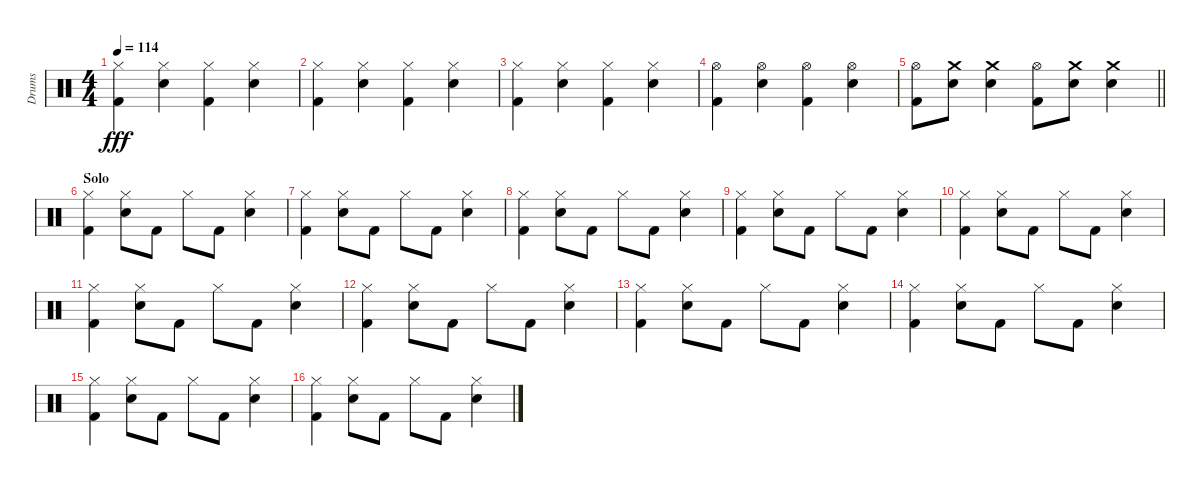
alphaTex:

\track ("Drums" "Drums") {instrument percussion}
\staff {score}
\articulation defaults
\ts (4 4)
\tempo 114
\clef neutral
\ks c
("Hi-Hat (closed)" "Kick (hit) 2").4{dy fff} ("Hi-Hat (closed)" "Snare (hit) 2").4 ("Hi-Hat (closed)" "Kick (hit) 2").4 ("Hi-Hat (closed)" "Snare (hit) 2").4 |
("Hi-Hat (closed)" "Kick (hit) 2").4 ("Hi-Hat (closed)" "Snare (hit) 2").4 ("Hi-Hat (closed)" "Kick (hit) 2").4 ("Hi-Hat (closed)" "Snare (hit) 2").4 |
("Hi-Hat (closed)" "Kick (hit) 2").4 ("Hi-Hat (closed)" "Snare (hit) 2").4 ("Hi-Hat (closed)" "Kick (hit) 2").4 ("Hi-Hat (closed)" "Snare (hit) 2").4 |
("Hi-Hat (open)" "Kick (hit) 2").4 ("Hi-Hat (open)" "Snare (hit) 2").4 ("Hi-Hat (open)" "Kick (hit) 2").4 ("Hi-Hat (open)" "Snare (hit) 2").4 |
\barLineRight lightlight
("Hi-Hat (open)" "Kick (hit) 2").8 ("Crash medium (hit)" "Snare (hit) 2").8 ("Crash medium (hit)" "Snare (hit) 2").4 ("Hi-Hat (open)" "Kick (hit) 2").8 ("Crash medium (hit)" "Snare (hit) 2").8 ("Crash medium (hit)" "Snare (hit) 2").4 |
\section ("" "Solo")
("Hi-Hat (closed)" "Kick (hit) 2").4 ("Hi-Hat (closed)" "Snare (hit) 2").8 "Kick (hit) 2".8 "Hi-Hat (closed)".8 "Kick (hit) 2".8 ("Hi-Hat (closed)" "Snare (hit) 2").4 |
("Hi-Hat (closed)" "Kick (hit) 2").4 ("Hi-Hat (closed)" "Snare (hit) 2").8 "Kick (hit) 2".8 "Hi-Hat (closed)".8 "Kick (hit) 2".8 ("Hi-Hat (closed)" "Snare (hit) 2").4 |
("Hi-Hat (closed)" "Kick (hit) 2").4 ("Hi-Hat (closed)" "Snare (hit) 2").8 "Kick (hit) 2".8 "Hi-Hat (closed)".8 "Kick (hit) 2".8 ("Hi-Hat (closed)" "Snare (hit) 2").4 |
("Hi-Hat (closed)" "Kick (hit) 2").4 ("Hi-Hat (closed)" "Snare (hit) 2").8 "Kick (hit) 2".8 "Hi-Hat (closed)".8 "Kick (hit) 2".8 ("Hi-Hat (closed)" "Snare (hit) 2").4 |
("Hi-Hat (closed)" "Kick (hit) 2").4 ("Hi-Hat (closed)" "Snare (hit) 2").8 "Kick (hit) 2".8 "Hi-Hat (closed)".8 "Kick (hit) 2".8 ("Hi-Hat (closed)" "Snare (hit) 2").4 |
("Hi-Hat (closed)" "Kick (hit) 2").4 ("Hi-Hat (closed)" "Snare (hit) 2").8 "Kick (hit) 2".8 "Hi-Hat (closed)".8 "Kick (hit) 2".8 ("Hi-Hat (closed)" "Snare (hit) 2").4 |
("Hi-Hat (closed)" "Kick (hit) 2").4 ("Hi-Hat (closed)" "Snare (hit) 2").8 "Kick (hit) 2".8 "Hi-Hat (closed)".8 "Kick (hit) 2".8 ("Hi-Hat (closed)" "Snare (hit) 2").4 |
("Hi-Hat (closed)" "Kick (hit) 2").4 ("Hi-Hat (closed)" "Snare (hit) 2").8 "Kick (hit) 2".8 "Hi-Hat (closed)".8 "Kick (hit) 2".8 ("Hi-Hat (closed)" "Snare (hit) 2").4 |
("Hi-Hat (closed)" "Kick (hit) 2").4 ("Hi-Hat (closed)" "Snare (hit) 2").8 "Kick (hit) 2".8 "Hi-Hat (closed)".8 "Kick (hit) 2".8 ("Hi-Hat (closed)" "Snare (hit) 2").4 |
("Hi-Hat (closed)" "Kick (hit) 2").4 ("Hi-Hat (closed)" "Snare (hit) 2").8 "Kick (hit) 2".8 "Hi-Hat (closed)".8 "Kick (hit) 2".8 ("Hi-Hat (closed)" "Snare (hit) 2").4 |
("Hi-Hat (closed)" "Kick (hit) 2").4 ("Hi-Hat (closed)" "Snare (hit) 2").8 "Kick (hit) 2".8 "Hi-Hat (closed)".8 "Kick (hit) 2".8 ("Hi-Hat (closed)" "Snare (hit) 2").4
